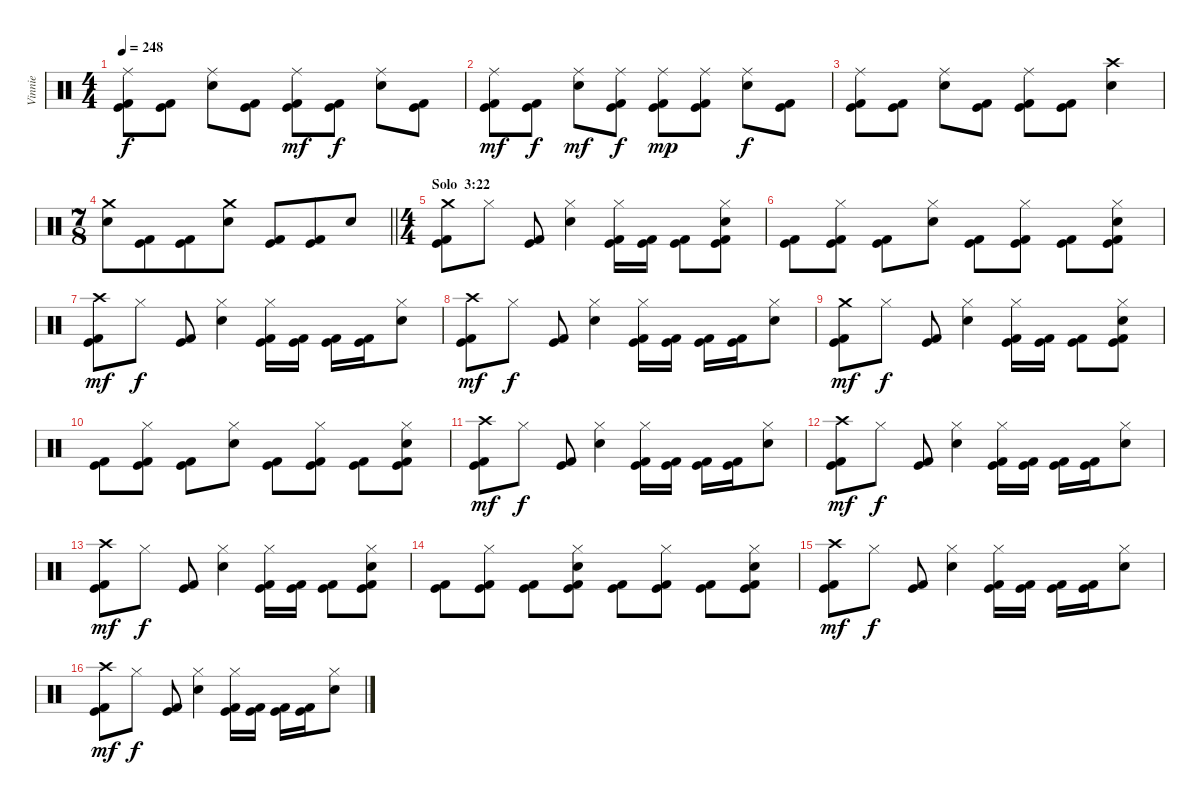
\track ("Vinnie" "Vinnie") {instrument percussion}
\staff {score}
\articulation defaults
\ts (4 4)
\tempo 248
\clef neutral
\ks c
("Ride (middle)" "Kick (hit)" "Kick (hit) 2").8{dy f} ("Kick (hit)" "Kick (hit) 2").8 ("Ride (middle)" "Electric Snare (hit)").8 ("Kick (hit)" "Kick (hit) 2").8 ("Ride (middle)" "Kick (hit)" "Kick (hit) 2").8{dy mf} ("Kick (hit)" "Kick (hit) 2").8{dy f} ("Ride (middle)" "Electric Snare (hit)").8 ("Kick (hit)" "Kick (hit) 2").8 |
("Ride (middle)" "Kick (hit)" "Kick (hit) 2").8{dy mf} ("Kick (hit)" "Kick (hit) 2").8{dy f} ("Ride (middle)" "Electric Snare (hit)").8{dy mf} ("Ride (middle)" "Kick (hit)" "Kick (hit) 2").8{dy f} ("Ride (middle)" "Kick (hit)" "Kick (hit) 2").8{dy mp} ("Ride (middle)" "Kick (hit)" "Kick (hit) 2").8 ("Ride (middle)" "Electric Snare (hit)").8{dy f} ("Kick (hit)" "Kick (hit) 2").8 |
("Ride (middle)" "Kick (hit)" "Kick (hit) 2").8 ("Kick (hit)" "Kick (hit) 2").8 ("Ride (middle)" "Electric Snare (hit)").8 ("Kick (hit)" "Kick (hit) 2").8 ("Ride (middle)" "Kick (hit)" "Kick (hit) 2").8 ("Kick (hit)" "Kick (hit) 2").8 ("Crash high (hit)" "Electric Snare (hit)").4 |
\ts (7 8)
\barLineRight lightlight
("Crash medium (hit)" "Electric Snare (hit)").8 ("Kick (hit)" "Kick (hit) 2").8 ("Kick (hit)" "Kick (hit) 2").8 ("Crash medium (hit)" "Electric Snare (hit)").8 ("Kick (hit)" "Kick (hit) 2").8 ("Kick (hit)" "Kick (hit) 2").8 "Electric Snare (hit)".8 |
\ts (4 4)
\section ("" "Solo  3:22")
("Crash medium (hit)" "Kick (hit)" "Kick (hit) 2").8 "Hi-Hat (closed)".8 ("Kick (hit)" "Kick (hit) 2").8 ("Hi-Hat (closed)" "Electric Snare (hit)").4 ("Hi-Hat (closed)" "Kick (hit)" "Kick (hit) 2").16 ("Kick (hit)" "Kick (hit) 2").16 ("Kick (hit)" "Kick (hit) 2").8 ("Hi-Hat (closed)" "Electric Snare (hit)" "Kick (hit)" "Kick (hit) 2").8{bd 30} |
("Kick (hit)" "Kick (hit) 2").8 ("Hi-Hat (closed)" "Kick (hit)" "Kick (hit) 2").8 ("Kick (hit)" "Kick (hit) 2").8 ("Hi-Hat (closed)" "Electric Snare (hit)").8 ("Kick (hit)" "Kick (hit) 2").8 ("Hi-Hat (closed)" "Kick (hit)" "Kick (hit) 2").8 ("Kick (hit)" "Kick (hit) 2").8 ("Hi-Hat (closed)" "Electric Snare (hit)" "Kick (hit)" "Kick (hit) 2").8{bd 30} |
("Crash high (hit)" "Kick (hit)" "Kick (hit) 2").8{dy mf} "Hi-Hat (closed)".8{dy f} ("Kick (hit)" "Kick (hit) 2").8 ("Hi-Hat (closed)" "Electric Snare (hit)").4 ("Hi-Hat (closed)" "Kick (hit)" "Kick (hit) 2").16 ("Kick (hit)" "Kick (hit) 2").16 ("Kick (hit)" "Kick (hit) 2").16 ("Kick (hit)" "Kick (hit) 2").16 ("Hi-Hat (closed)" "Electric Snare (hit)").8 |
("Crash high (hit)" "Kick (hit)" "Kick (hit) 2").8{dy mf} "Hi-Hat (closed)".8{dy f} ("Kick (hit)" "Kick (hit) 2").8 ("Hi-Hat (closed)" "Electric Snare (hit)").4 ("Hi-Hat (closed)" "Kick (hit)" "Kick (hit) 2").16 ("Kick (hit)" "Kick (hit) 2").16 ("Kick (hit)" "Kick (hit) 2").16 ("Kick (hit)" "Kick (hit) 2").16 ("Hi-Hat (closed)" "Electric Snare (hit)").8 |
("Crash medium (hit)" "Kick (hit)" "Kick (hit) 2").8{dy mf} "Hi-Hat (closed)".8{dy f} ("Kick (hit)" "Kick (hit) 2").8 ("Hi-Hat (closed)" "Electric Snare (hit)").4 ("Hi-Hat (closed)" "Kick (hit)" "Kick (hit) 2").16 ("Kick (hit)" "Kick (hit) 2").16 ("Kick (hit)" "Kick (hit) 2").8 ("Hi-Hat (closed)" "Electric Snare (hit)" "Kick (hit)" "Kick (hit) 2").8{bd 30} |
("Kick (hit)" "Kick (hit) 2").8 ("Hi-Hat (closed)" "Kick (hit)" "Kick (hit) 2").8 ("Kick (hit)" "Kick (hit) 2").8 ("Hi-Hat (closed)" "Electric Snare (hit)").8 ("Kick (hit)" "Kick (hit) 2").8 ("Hi-Hat (closed)" "Kick (hit)" "Kick (hit) 2").8 ("Kick (hit)" "Kick (hit) 2").8 ("Hi-Hat (closed)" "Electric Snare (hit)" "Kick (hit)" "Kick (hit) 2").8{bd 30} |
("Crash high (hit)" "Kick (hit)" "Kick (hit) 2").8{dy mf} "Hi-Hat (closed)".8{dy f} ("Kick (hit)" "Kick (hit) 2").8 ("Hi-Hat (closed)" "Electric Snare (hit)").4 ("Hi-Hat (closed)" "Kick (hit)" "Kick (hit) 2").16 ("Kick (hit)" "Kick (hit) 2").16 ("Kick (hit)" "Kick (hit) 2").16 ("Kick (hit)" "Kick (hit) 2").16 ("Hi-Hat (closed)" "Electric Snare (hit)").8 |
("Crash high (hit)" "Kick (hit)" "Kick (hit) 2").8{dy mf} "Hi-Hat (closed)".8{dy f} ("Kick (hit)" "Kick (hit) 2").8 ("Hi-Hat (closed)" "Electric Snare (hit)").4 ("Hi-Hat (closed)" "Kick (hit)" "Kick (hit) 2").16 ("Kick (hit)" "Kick (hit) 2").16 ("Kick (hit)" "Kick (hit) 2").16 ("Kick (hit)" "Kick (hit) 2").16 ("Hi-Hat (closed)" "Electric Snare (hit)").8 |
("Crash high (hit)" "Kick (hit)" "Kick (hit) 2").8{dy mf} "Hi-Hat (closed)".8{dy f} ("Kick (hit)" "Kick (hit) 2").8 ("Hi-Hat (closed)" "Electric Snare (hit)").4 ("Hi-Hat (closed)" "Kick (hit)" "Kick (hit) 2").16 ("Kick (hit)" "Kick (hit) 2").16 ("Kick (hit)" "Kick (hit) 2").8 ("Hi-Hat (closed)" "Electric Snare (hit)" "Kick (hit)" "Kick (hit) 2").8{bd 30} |
("Kick (hit)" "Kick (hit) 2").8 ("Hi-Hat (closed)" "Kick (hit)" "Kick (hit) 2").8 ("Kick (hit)" "Kick (hit) 2").8 ("Hi-Hat (closed)" "Electric Snare (hit)" "Kick (hit)" "Kick (hit) 2").8 ("Kick (hit)" "Kick (hit) 2").8 ("Hi-Hat (closed)" "Kick (hit)" "Kick (hit) 2").8 ("Kick (hit)" "Kick (hit) 2").8 ("Hi-Hat (closed)" "Electric Snare (hit)" "Kick (hit)" "Kick (hit) 2").8{bd 30} |
("Crash high (hit)" "Kick (hit)" "Kick (hit) 2").8{dy mf} "Hi-Hat (closed)".8{dy f} ("Kick (hit)" "Kick (hit) 2").8 ("Hi-Hat (closed)" "Electric Snare (hit)").4 ("Hi-Hat (closed)" "Kick (hit)" "Kick (hit) 2").16 ("Kick (hit)" "Kick (hit) 2").16 ("Kick (hit)" "Kick (hit) 2").16 ("Kick (hit)" "Kick (hit) 2").16 ("Hi-Hat (closed)" "Electric Snare (hit)").8 |
("Crash high (hit)" "Kick (hit)" "Kick (hit) 2").8{dy mf} "Hi-Hat (closed)".8{dy f} ("Kick (hit)" "Kick (hit) 2").8 ("Hi-Hat (closed)" "Electric Snare (hit)").4 ("Hi-Hat (closed)" "Kick (hit)" "Kick (hit) 2").16 ("Kick (hit)" "Kick (hit) 2").16 ("Kick (hit)" "Kick (hit) 2").16 ("Kick (hit)" "Kick (hit) 2").16 ("Hi-Hat (closed)" "Electric Snare (hit)").8
